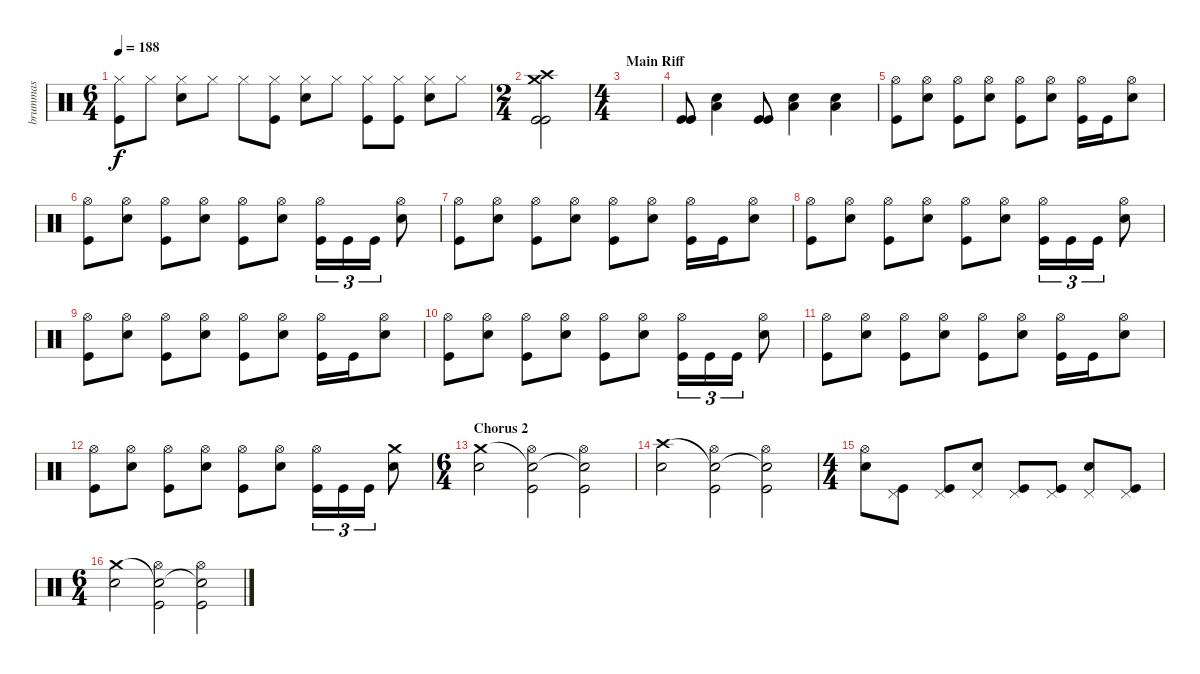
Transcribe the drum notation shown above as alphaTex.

\track ("brummas" "brummas") {instrument percussion}
\staff {score}
\articulation defaults
\ts (6 4)
\tempo 188
\clef neutral
\ks c
("Hi-Hat (closed)" "Kick (hit)").8{dy f} "Hi-Hat (closed)".8 ("Hi-Hat (closed)" "Snare (hit) 2").8 "Hi-Hat (closed)".8 "Hi-Hat (closed)".8 ("Hi-Hat (closed)" "Kick (hit)").8 ("Hi-Hat (closed)" "Snare (hit) 2").8 "Hi-Hat (closed)".8 ("Hi-Hat (closed)" "Kick (hit)").8 ("Hi-Hat (closed)" "Kick (hit)").8 ("Hi-Hat (closed)" "Snare (hit) 2").8 "Hi-Hat (closed)".8 |
\ts (2 4)
("Crash medium (hit)" "Crash high (hit)" "Kick (hit)" "Kick (hit)").2 |
\ts (4 4)
\section ("" "Main Riff")
|
("Kick (hit)" "Kick (hit)").8 ("Low Floor Tom (hit)" "Snare (hit) 2").4 ("Kick (hit)" "Kick (hit)").8 ("Low Floor Tom (hit)" "Snare (hit) 2").4 ("Low Floor Tom (hit)" "Snare (hit) 2").4 |
("Hi-Hat (open)" "Kick (hit)").8 ("Hi-Hat (open)" "Snare (hit) 2").8 ("Hi-Hat (open)" "Kick (hit)").8 ("Hi-Hat (open)" "Snare (hit) 2").8 ("Hi-Hat (open)" "Kick (hit)").8 ("Hi-Hat (open)" "Snare (hit) 2").8 ("Hi-Hat (open)" "Kick (hit)").16 "Kick (hit)".16 ("Hi-Hat (open)" "Snare (hit) 2").8 |
("Hi-Hat (open)" "Kick (hit)").8 ("Hi-Hat (open)" "Snare (hit) 2").8 ("Hi-Hat (open)" "Kick (hit)").8 ("Hi-Hat (open)" "Snare (hit) 2").8 ("Hi-Hat (open)" "Kick (hit)").8 ("Hi-Hat (open)" "Snare (hit) 2").8 ("Hi-Hat (open)" "Kick (hit)").16{tu (3 2)} "Kick (hit)".16{tu (3 2)} "Kick (hit)".16{tu (3 2)} ("Hi-Hat (open)" "Snare (hit) 2").8 |
("Hi-Hat (open)" "Kick (hit)").8 ("Hi-Hat (open)" "Snare (hit) 2").8 ("Hi-Hat (open)" "Kick (hit)").8 ("Hi-Hat (open)" "Snare (hit) 2").8 ("Hi-Hat (open)" "Kick (hit)").8 ("Hi-Hat (open)" "Snare (hit) 2").8 ("Hi-Hat (open)" "Kick (hit)").16 "Kick (hit)".16 ("Hi-Hat (open)" "Snare (hit) 2").8 |
("Hi-Hat (open)" "Kick (hit)").8 ("Hi-Hat (open)" "Snare (hit) 2").8 ("Hi-Hat (open)" "Kick (hit)").8 ("Hi-Hat (open)" "Snare (hit) 2").8 ("Hi-Hat (open)" "Kick (hit)").8 ("Hi-Hat (open)" "Snare (hit) 2").8 ("Hi-Hat (open)" "Kick (hit)").16{tu (3 2)} "Kick (hit)".16{tu (3 2)} "Kick (hit)".16{tu (3 2)} ("Hi-Hat (open)" "Snare (hit) 2").8 |
("Hi-Hat (open)" "Kick (hit)").8 ("Hi-Hat (open)" "Snare (hit) 2").8 ("Hi-Hat (open)" "Kick (hit)").8 ("Hi-Hat (open)" "Snare (hit) 2").8 ("Hi-Hat (open)" "Kick (hit)").8 ("Hi-Hat (open)" "Snare (hit) 2").8 ("Hi-Hat (open)" "Kick (hit)").16 "Kick (hit)".16 ("Hi-Hat (open)" "Snare (hit) 2").8 |
("Hi-Hat (open)" "Kick (hit)").8 ("Hi-Hat (open)" "Snare (hit) 2").8 ("Hi-Hat (open)" "Kick (hit)").8 ("Hi-Hat (open)" "Snare (hit) 2").8 ("Hi-Hat (open)" "Kick (hit)").8 ("Hi-Hat (open)" "Snare (hit) 2").8 ("Hi-Hat (open)" "Kick (hit)").16{tu (3 2)} "Kick (hit)".16{tu (3 2)} "Kick (hit)".16{tu (3 2)} ("Hi-Hat (open)" "Snare (hit) 2").8 |
("Hi-Hat (open)" "Kick (hit)").8 ("Hi-Hat (open)" "Snare (hit) 2").8 ("Hi-Hat (open)" "Kick (hit)").8 ("Hi-Hat (open)" "Snare (hit) 2").8 ("Hi-Hat (open)" "Kick (hit)").8 ("Hi-Hat (open)" "Snare (hit) 2").8 ("Hi-Hat (open)" "Kick (hit)").16 "Kick (hit)".16 ("Hi-Hat (open)" "Snare (hit) 2").8 |
("Hi-Hat (open)" "Kick (hit)").8 ("Hi-Hat (open)" "Snare (hit) 2").8 ("Hi-Hat (open)" "Kick (hit)").8 ("Hi-Hat (open)" "Snare (hit) 2").8 ("Hi-Hat (open)" "Kick (hit)").8 ("Hi-Hat (open)" "Snare (hit) 2").8 ("Hi-Hat (open)" "Kick (hit)").16{tu (3 2)} "Kick (hit)".16{tu (3 2)} "Kick (hit)".16{tu (3 2)} ("Crash medium (hit)" "Snare (hit) 2").8 |
\ts (6 4)
\section ("" "Chorus 2")
("Crash medium (hit)" "Snare (hit) 2").2 ("Snare (hit)"{t} "Hi-Hat (open)" "Kick (hit)").2 ("Snare (hit)"{t} "Hi-Hat (open)" "Kick (hit)").2 |
("Crash high (hit)" "Snare (hit) 2").2 ("Snare (hit)"{t} "Hi-Hat (open)" "Kick (hit)").2 ("Snare (hit)"{t} "Hi-Hat (open)" "Kick (hit)").2 |
\ts (4 4)
("Hi-Hat (open)" "Snare (hit) 2").8 ("Pedal Hi-Hat (hit)" "Kick (hit)").8 ("Pedal Hi-Hat (hit)" "Kick (hit)").8 ("Pedal Hi-Hat (hit)" "Snare (hit) 2").8 ("Pedal Hi-Hat (hit)" "Kick (hit)").8 ("Pedal Hi-Hat (hit)" "Kick (hit)").8 ("Pedal Hi-Hat (hit)" "Snare (hit) 2").8 ("Pedal Hi-Hat (hit)" "Kick (hit)").8 |
\ts (6 4)
("Crash medium (hit)" "Snare (hit) 2").2 ("Snare (hit)"{t} "Hi-Hat (open)" "Kick (hit)").2 ("Snare (hit)"{t} "Hi-Hat (open)" "Kick (hit)").2
